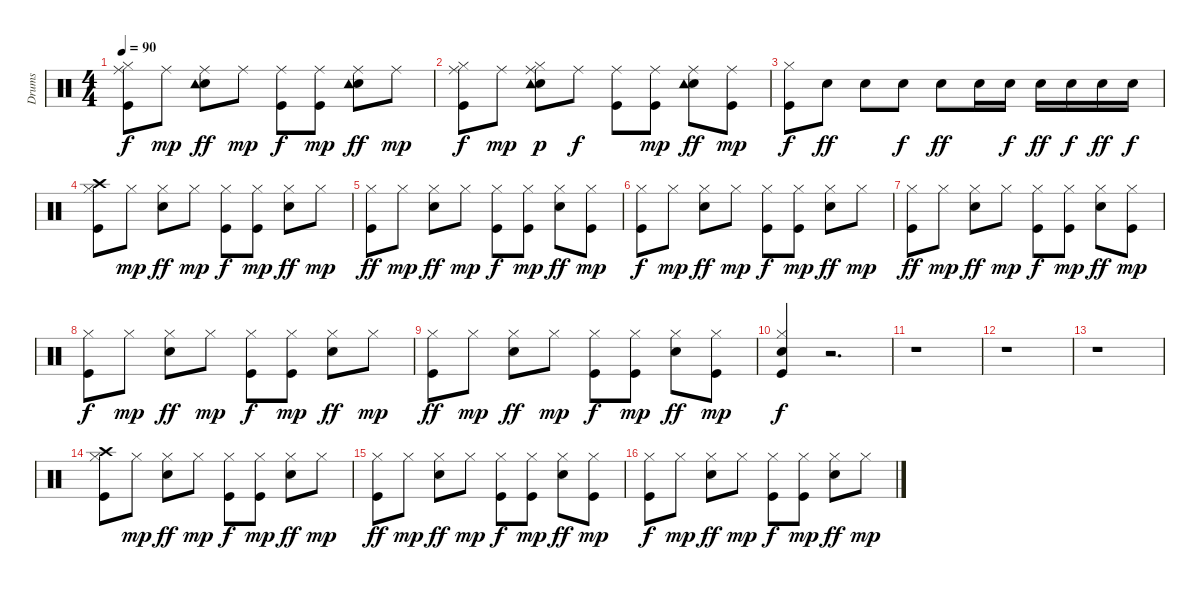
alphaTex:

\track ("Drums   " "Drums   ") {instrument percussion}
\staff {score}
\articulation defaults
\ts (4 4)
\tempo 90
\clef neutral
\ks c
("Kick (hit)" "Hi-Hat (closed)" "Ride (middle)").8{dy f} "Ride (middle)".8{dy mp} ("Snare (hit) 2" "Tambourine (hit)" "Ride (middle)").8{dy ff} "Ride (middle)".8{dy mp} ("Kick (hit)" "Ride (middle)").8{dy f} ("Kick (hit)" "Ride (middle)").8{dy mp} ("Snare (hit) 2" "Tambourine (hit)" "Ride (middle)").8{dy ff} "Ride (middle)".8{dy mp} |
("Kick (hit)" "Hi-Hat (closed)" "Ride (middle)").8{dy f} "Ride (middle)".8{dy mp} ("Snare (hit) 2" "Hi-Hat (closed)" "Tambourine (hit)" "Ride (middle)").8{dy p} "Ride (middle)".8{dy f} ("Kick (hit)" "Ride (middle)").8 ("Kick (hit)" "Ride (middle)").8{dy mp} ("Snare (hit) 2" "Tambourine (hit)" "Ride (middle)").8{dy ff} ("Kick (hit)" "Ride (middle)").8{dy mp} |
("Kick (hit)" "Hi-Hat (closed)").8{dy f} "Snare (hit) 2".8{dy ff} "Snare (hit) 2".8 "Snare (hit) 2".8{dy f} "Snare (hit) 2".8{dy ff} "Snare (hit) 2".16 "Snare (hit) 2".16{dy f} "Snare (hit) 2".16{dy ff} "Snare (hit) 2".16{dy f} "Snare (hit) 2".16{dy ff} "Snare (hit) 2".16{dy f} |
("Kick (hit)" "Hi-Hat (closed)" "Crash high (hit)").8 "Hi-Hat (closed)".8{dy mp} ("Snare (hit) 2" "Hi-Hat (closed)").8{dy ff} "Hi-Hat (closed)".8{dy mp} ("Kick (hit)" "Hi-Hat (closed)").8{dy f} ("Kick (hit)" "Hi-Hat (closed)").8{dy mp} ("Snare (hit) 2" "Hi-Hat (closed)").8{dy ff} "Hi-Hat (closed)".8{dy mp} |
("Kick (hit)" "Hi-Hat (closed)").8{dy ff} "Hi-Hat (closed)".8{dy mp} ("Snare (hit) 2" "Hi-Hat (closed)").8{dy ff} "Hi-Hat (closed)".8{dy mp} ("Kick (hit)" "Hi-Hat (closed)").8{dy f} ("Kick (hit)" "Hi-Hat (closed)").8{dy mp} ("Snare (hit) 2" "Hi-Hat (closed)").8{dy ff} ("Kick (hit)" "Hi-Hat (closed)").8{dy mp} |
("Kick (hit)" "Hi-Hat (closed)").8{dy f} "Hi-Hat (closed)".8{dy mp} ("Snare (hit) 2" "Hi-Hat (closed)").8{dy ff} "Hi-Hat (closed)".8{dy mp} ("Kick (hit)" "Hi-Hat (closed)").8{dy f} ("Kick (hit)" "Hi-Hat (closed)").8{dy mp} ("Snare (hit) 2" "Hi-Hat (closed)").8{dy ff} "Hi-Hat (closed)".8{dy mp} |
("Kick (hit)" "Hi-Hat (closed)").8{dy ff} "Hi-Hat (closed)".8{dy mp} ("Snare (hit) 2" "Hi-Hat (closed)").8{dy ff} "Hi-Hat (closed)".8{dy mp} ("Kick (hit)" "Hi-Hat (closed)").8{dy f} ("Kick (hit)" "Hi-Hat (closed)").8{dy mp} ("Snare (hit) 2" "Hi-Hat (closed)").8{dy ff} ("Kick (hit)" "Hi-Hat (closed)").8{dy mp} |
("Kick (hit)" "Hi-Hat (closed)").8{dy f} "Hi-Hat (closed)".8{dy mp} ("Snare (hit) 2" "Hi-Hat (closed)").8{dy ff} "Hi-Hat (closed)".8{dy mp} ("Kick (hit)" "Hi-Hat (closed)").8{dy f} ("Kick (hit)" "Hi-Hat (closed)").8{dy mp} ("Snare (hit) 2" "Hi-Hat (closed)").8{dy ff} "Hi-Hat (closed)".8{dy mp} |
("Kick (hit)" "Hi-Hat (closed)").8{dy ff} "Hi-Hat (closed)".8{dy mp} ("Snare (hit) 2" "Hi-Hat (closed)").8{dy ff} "Hi-Hat (closed)".8{dy mp} ("Kick (hit)" "Hi-Hat (closed)").8{dy f} ("Kick (hit)" "Hi-Hat (closed)").8{dy mp} ("Snare (hit) 2" "Hi-Hat (closed)").8{dy ff} ("Kick (hit)" "Hi-Hat (closed)").8{dy mp} |
("Kick (hit)" "Snare (hit) 2" "Hi-Hat (closed)").4{dy f} r.2{d} |
r.1 |
r.1 |
r.1 |
("Kick (hit)" "Hi-Hat (closed)" "Crash high (hit)").8 "Hi-Hat (closed)".8{dy mp} ("Snare (hit) 2" "Hi-Hat (closed)").8{dy ff} "Hi-Hat (closed)".8{dy mp} ("Kick (hit)" "Hi-Hat (closed)").8{dy f} ("Kick (hit)" "Hi-Hat (closed)").8{dy mp} ("Snare (hit) 2" "Hi-Hat (closed)").8{dy ff} "Hi-Hat (closed)".8{dy mp} |
("Kick (hit)" "Hi-Hat (closed)").8{dy ff} "Hi-Hat (closed)".8{dy mp} ("Snare (hit) 2" "Hi-Hat (closed)").8{dy ff} "Hi-Hat (closed)".8{dy mp} ("Kick (hit)" "Hi-Hat (closed)").8{dy f} ("Kick (hit)" "Hi-Hat (closed)").8{dy mp} ("Snare (hit) 2" "Hi-Hat (closed)").8{dy ff} ("Kick (hit)" "Hi-Hat (closed)").8{dy mp} |
("Kick (hit)" "Hi-Hat (closed)").8{dy f volume 3} "Hi-Hat (closed)".8{dy mp} ("Snare (hit) 2" "Hi-Hat (closed)").8{dy ff} "Hi-Hat (closed)".8{dy mp} ("Kick (hit)" "Hi-Hat (closed)").8{dy f} ("Kick (hit)" "Hi-Hat (closed)").8{dy mp} ("Snare (hit) 2" "Hi-Hat (closed)").8{dy ff} "Hi-Hat (closed)".8{dy mp}
